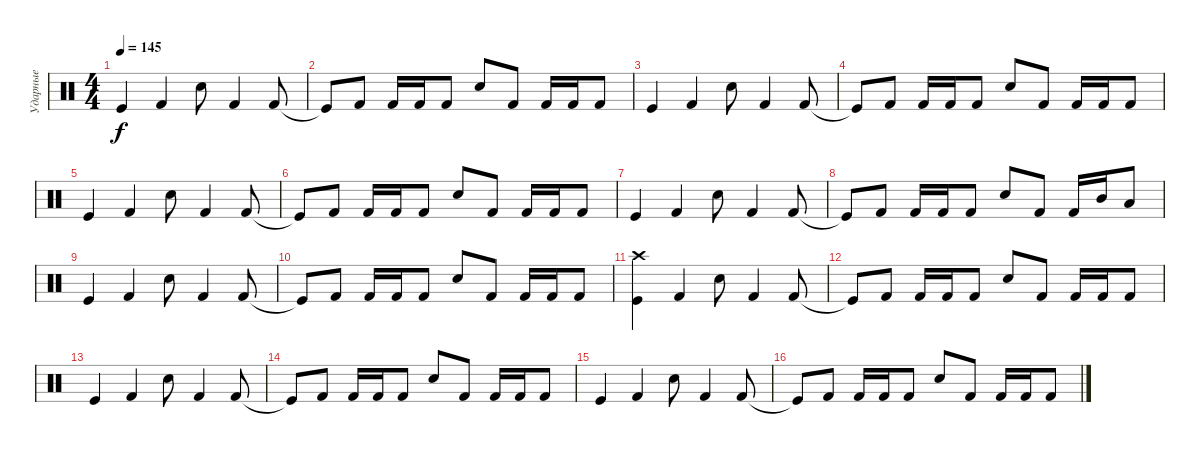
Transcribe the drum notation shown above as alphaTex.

\track ("Ударные" "Ударные") {instrument percussion}
\staff {score}
\articulation defaults
\ts (4 4)
\tempo 145
\clef neutral
\ks c "Kick (hit)".4{dy f} "Kick (hit) 2".4 "Electric Snare (hit)".8 "Kick (hit) 2".4 "Kick (hit) 2".8
|
"Kick (hit)"{t}.8 "Kick (hit) 2".8 "Kick (hit) 2".16 "Kick (hit) 2".16 "Kick (hit) 2".8 "Electric Snare (hit)".8 "Kick (hit) 2".8 "Kick (hit) 2".16 "Kick (hit) 2".16 "Kick (hit) 2".8 |
"Kick (hit)".4 "Kick (hit) 2".4 "Electric Snare (hit)".8 "Kick (hit) 2".4 "Kick (hit) 2".8 |
"Kick (hit)"{t}.8 "Kick (hit) 2".8 "Kick (hit) 2".16 "Kick (hit) 2".16 "Kick (hit) 2".8 "Electric Snare (hit)".8 "Kick (hit) 2".8 "Kick (hit) 2".16 "Kick (hit) 2".16 "Kick (hit) 2".8 |
"Kick (hit)".4 "Kick (hit) 2".4 "Electric Snare (hit)".8 "Kick (hit) 2".4 "Kick (hit) 2".8 |
"Kick (hit)"{t}.8 "Kick (hit) 2".8 "Kick (hit) 2".16 "Kick (hit) 2".16 "Kick (hit) 2".8 "Electric Snare (hit)".8 "Kick (hit) 2".8 "Kick (hit) 2".16 "Kick (hit) 2".16 "Kick (hit) 2".8 |
"Kick (hit)".4 "Kick (hit) 2".4 "Electric Snare (hit)".8 "Kick (hit) 2".4 "Kick (hit) 2".8 |
"Kick (hit)"{t}.8 "Kick (hit) 2".8 "Kick (hit) 2".16 "Kick (hit) 2".16 "Kick (hit) 2".8 "Electric Snare (hit)".8 "Kick (hit) 2".8 "Kick (hit) 2".16 "Mid Tom (hit)".16 "Low Tom (hit)".8 |
"Kick (hit)".4 "Kick (hit) 2".4 "Electric Snare (hit)".8 "Kick (hit) 2".4 "Kick (hit) 2".8 |
"Kick (hit)"{t}.8 "Kick (hit) 2".8 "Kick (hit) 2".16 "Kick (hit) 2".16 "Kick (hit) 2".8 "Electric Snare (hit)".8 "Kick (hit) 2".8 "Kick (hit) 2".16 "Kick (hit) 2".16 "Kick (hit) 2".8 |
("Crash high (hit)" "Kick (hit)").4 "Kick (hit) 2".4 "Electric Snare (hit)".8 "Kick (hit) 2".4 "Kick (hit) 2".8 |
"Kick (hit)"{t}.8 "Kick (hit) 2".8 "Kick (hit) 2".16 "Kick (hit) 2".16 "Kick (hit) 2".8 "Electric Snare (hit)".8 "Kick (hit) 2".8 "Kick (hit) 2".16 "Kick (hit) 2".16 "Kick (hit) 2".8 |
"Kick (hit)".4 "Kick (hit) 2".4 "Electric Snare (hit)".8 "Kick (hit) 2".4 "Kick (hit) 2".8 |
"Kick (hit)"{t}.8 "Kick (hit) 2".8 "Kick (hit) 2".16 "Kick (hit) 2".16 "Kick (hit) 2".8 "Electric Snare (hit)".8 "Kick (hit) 2".8 "Kick (hit) 2".16 "Kick (hit) 2".16 "Kick (hit) 2".8 |
"Kick (hit)".4 "Kick (hit) 2".4 "Electric Snare (hit)".8 "Kick (hit) 2".4 "Kick (hit) 2".8 |
"Kick (hit)"{t}.8 "Kick (hit) 2".8 "Kick (hit) 2".16 "Kick (hit) 2".16 "Kick (hit) 2".8 "Electric Snare (hit)".8 "Kick (hit) 2".8 "Kick (hit) 2".16 "Kick (hit) 2".16 "Kick (hit) 2".8
